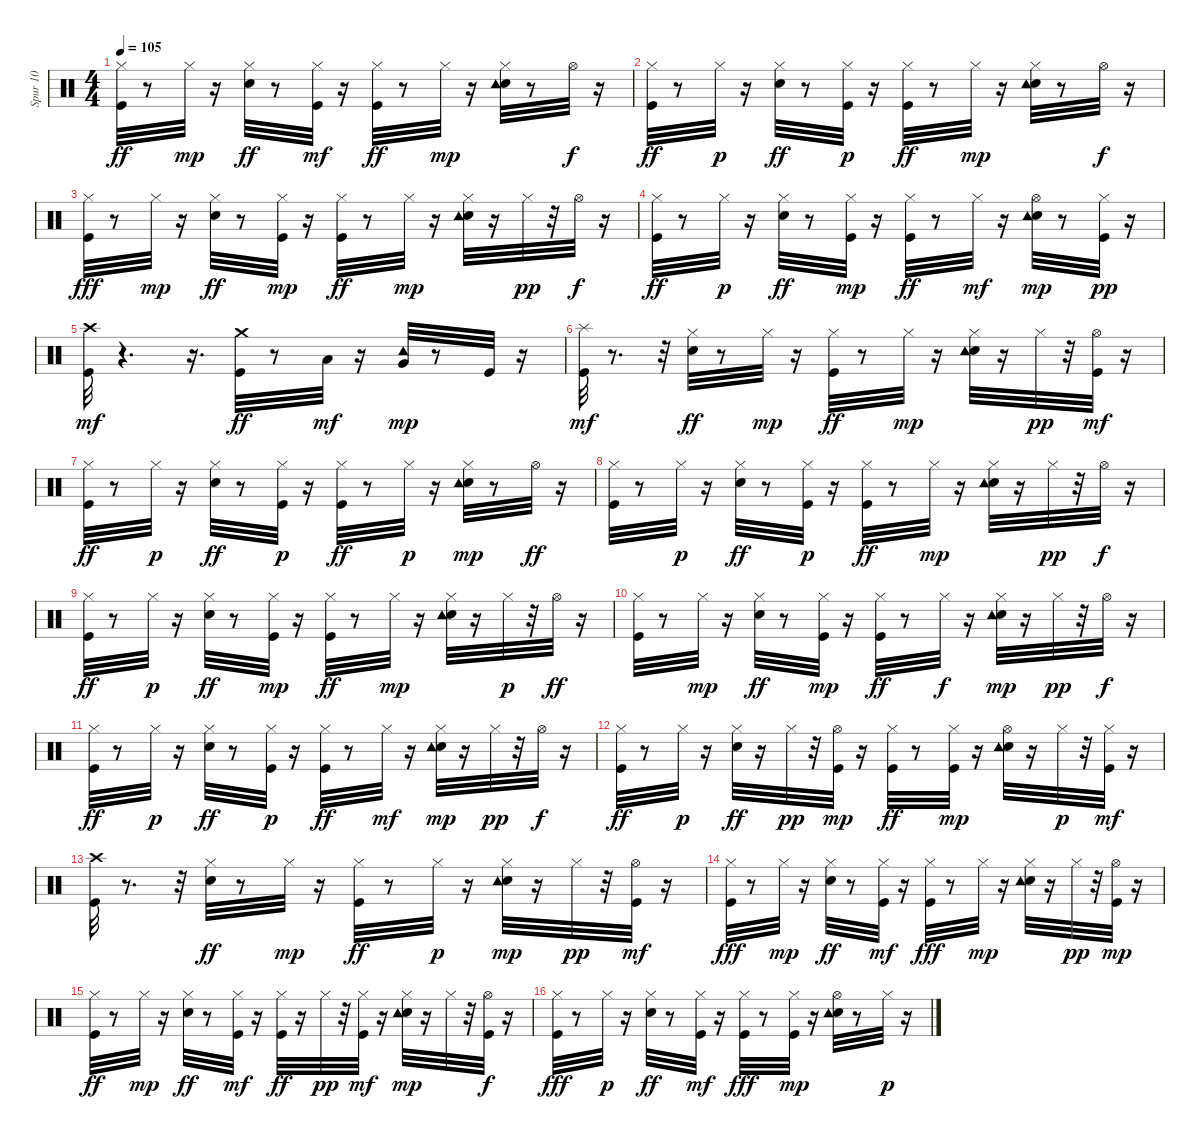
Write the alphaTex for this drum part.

\track ("Spur 10" "Spur 10") {instrument percussion}
\staff {score}
\articulation defaults
\ts (4 4)
\tempo 105
\clef neutral
\ks c
("Kick (hit)" "Hi-Hat (closed)").32{dy ff} r.8 "Hi-Hat (closed)".32{dy mp} r.16 ("Snare (hit) 2" "Hi-Hat (closed)").32{dy ff} r.8 ("Kick (hit)" "Hi-Hat (closed)").32{dy mf} r.16 ("Kick (hit)" "Hi-Hat (closed)").32{dy ff} r.8 "Hi-Hat (closed)".32{dy mp} r.16 ("Snare (hit) 2" "Hi-Hat (closed)" "Tambourine (hit)").32 r.8 "Hi-Hat (open)".32{dy f} r.16 |
("Kick (hit)" "Hi-Hat (closed)").32{dy ff} r.8 "Hi-Hat (closed)".32{dy p} r.16 ("Snare (hit) 2" "Hi-Hat (closed)").32{dy ff} r.8 ("Kick (hit)" "Hi-Hat (closed)").32{dy p} r.16 ("Kick (hit)" "Hi-Hat (closed)").32{dy ff} r.8 "Hi-Hat (closed)".32{dy mp} r.16 ("Snare (hit) 2" "Hi-Hat (closed)" "Tambourine (hit)").32 r.8 "Hi-Hat (open)".32{dy f} r.16 |
("Kick (hit)" "Hi-Hat (closed)").32{dy fff} r.8 "Hi-Hat (closed)".32{dy mp} r.16 ("Snare (hit) 2" "Hi-Hat (closed)").32{dy ff} r.8 ("Kick (hit)" "Hi-Hat (closed)").32{dy mp} r.16 ("Kick (hit)" "Hi-Hat (closed)").32{dy ff} r.8 "Hi-Hat (closed)".32{dy mp} r.16 ("Snare (hit) 2" "Hi-Hat (closed)" "Tambourine (hit)").32 r.16 "Hi-Hat (closed)".32{dy pp} r.32 "Hi-Hat (open)".32{dy f} r.16 |
("Kick (hit)" "Hi-Hat (closed)").32{dy ff} r.8 "Hi-Hat (closed)".32{dy p} r.16 ("Snare (hit) 2" "Hi-Hat (closed)").32{dy ff} r.8 ("Kick (hit)" "Hi-Hat (closed)").32{dy mp} r.16 ("Kick (hit)" "Hi-Hat (closed)").32{dy ff} r.8 "Hi-Hat (closed)".32{dy mf} r.16 ("Snare (hit) 2" "Hi-Hat (open)" "Tambourine (hit)").32{dy mp} r.8 ("Kick (hit)" "Hi-Hat (closed)").32{dy pp} r.16 |
("Kick (hit)" "Crash high (hit)").32{dy mf} r.4{d} r.16{d} ("Kick (hit)" "Crash medium (hit)").32{dy ff} r.8 "Low Tom (hit)".32{dy mf} r.16 ("Very Low Tom (hit)" "Tambourine (hit)").32{dy mp} r.8 "Kick (hit)".32 r.16 |
("Kick (hit)" "Splash (hit)").32{dy mf} r.8{d} r.32 ("Snare (hit) 2" "Hi-Hat (closed)").32{dy ff} r.8 "Hi-Hat (closed)".32{dy mp} r.16 ("Kick (hit)" "Hi-Hat (closed)").32{dy ff} r.8 "Hi-Hat (closed)".32{dy mp} r.16 ("Snare (hit) 2" "Hi-Hat (closed)" "Tambourine (hit)").32 r.16 "Hi-Hat (closed)".32{dy pp} r.32 ("Kick (hit)" "Hi-Hat (open)").32{dy mf} r.16 |
("Kick (hit)" "Hi-Hat (closed)").32{dy ff} r.8 "Hi-Hat (closed)".32{dy p} r.16 ("Snare (hit) 2" "Hi-Hat (closed)").32{dy ff} r.8 ("Kick (hit)" "Hi-Hat (closed)").32{dy p} r.16 ("Kick (hit)" "Hi-Hat (closed)").32{dy ff} r.8 "Hi-Hat (closed)".32{dy p} r.16 ("Snare (hit) 2" "Hi-Hat (closed)" "Tambourine (hit)").32{dy mp} r.8 "Hi-Hat (open)".32{dy ff} r.16 |
("Kick (hit)" "Hi-Hat (closed)").32 r.8 "Hi-Hat (closed)".32{dy p} r.16 ("Snare (hit) 2" "Hi-Hat (closed)").32{dy ff} r.8 ("Kick (hit)" "Hi-Hat (closed)").32{dy p} r.16 ("Kick (hit)" "Hi-Hat (closed)").32{dy ff} r.8 "Hi-Hat (closed)".32{dy mp} r.16 ("Snare (hit) 2" "Hi-Hat (closed)" "Tambourine (hit)").32 r.16 "Hi-Hat (closed)".32{dy pp} r.32 "Hi-Hat (open)".32{dy f} r.16 |
("Kick (hit)" "Hi-Hat (closed)").32{dy ff} r.8 "Hi-Hat (closed)".32{dy p} r.16 ("Snare (hit) 2" "Hi-Hat (closed)").32{dy ff} r.8 ("Kick (hit)" "Hi-Hat (closed)").32{dy mp} r.16 ("Kick (hit)" "Hi-Hat (closed)").32{dy ff} r.8 "Hi-Hat (closed)".32{dy mp} r.16 ("Snare (hit) 2" "Hi-Hat (closed)" "Tambourine (hit)").32 r.16 "Hi-Hat (closed)".32{dy p} r.32 "Hi-Hat (open)".32{dy ff} r.16 |
("Kick (hit)" "Hi-Hat (closed)").32 r.8 "Hi-Hat (closed)".32{dy mp} r.16 ("Snare (hit) 2" "Hi-Hat (closed)").32{dy ff} r.8 ("Kick (hit)" "Hi-Hat (closed)").32{dy mp} r.16 ("Kick (hit)" "Hi-Hat (closed)").32{dy ff} r.8 "Hi-Hat (closed)".32{dy f} r.16 ("Snare (hit) 2" "Hi-Hat (closed)" "Tambourine (hit)").32{dy mp} r.16 "Hi-Hat (closed)".32{dy pp} r.32 "Hi-Hat (open)".32{dy f} r.16 |
("Kick (hit)" "Hi-Hat (closed)").32{dy ff} r.8 "Hi-Hat (closed)".32{dy p} r.16 ("Snare (hit) 2" "Hi-Hat (closed)").32{dy ff} r.8 ("Kick (hit)" "Hi-Hat (closed)").32{dy p} r.16 ("Kick (hit)" "Hi-Hat (closed)").32{dy ff} r.8 "Hi-Hat (closed)".32{dy mf} r.16 ("Snare (hit) 2" "Hi-Hat (closed)" "Tambourine (hit)").32{dy mp} r.16 "Hi-Hat (closed)".32{dy pp} r.32 "Hi-Hat (open)".32{dy f} r.16 |
("Kick (hit)" "Hi-Hat (closed)").32{dy ff} r.8 "Hi-Hat (closed)".32{dy p} r.16 ("Snare (hit) 2" "Hi-Hat (closed)").32{dy ff} r.16 "Hi-Hat (closed)".32{dy pp} r.32 ("Kick (hit)" "Hi-Hat (open)").32{dy mp} r.16 ("Kick (hit)" "Hi-Hat (closed)").32{dy ff} r.8 ("Kick (hit)" "Hi-Hat (closed)").32{dy mp} r.16 ("Snare (hit) 2" "Hi-Hat (open)" "Tambourine (hit)").32 r.16 "Hi-Hat (closed)".32{dy p} r.32 ("Kick (hit)" "Hi-Hat (closed)").32{dy mf} r.16 |
("Kick (hit)" "Crash high (hit)").32 r.8{d} r.32 ("Snare (hit) 2" "Hi-Hat (closed)").32{dy ff} r.8 "Hi-Hat (closed)".32{dy mp} r.16 ("Kick (hit)" "Hi-Hat (closed)").32{dy ff} r.8 "Hi-Hat (closed)".32{dy p} r.16 ("Snare (hit) 2" "Hi-Hat (closed)" "Tambourine (hit)").32{dy mp} r.16 "Hi-Hat (closed)".32{dy pp} r.32 ("Kick (hit)" "Hi-Hat (open)").32{dy mf} r.16 |
("Kick (hit)" "Hi-Hat (closed)").32{dy fff} r.8 "Hi-Hat (closed)".32{dy mp} r.16 ("Snare (hit) 2" "Hi-Hat (closed)").32{dy ff} r.8 ("Kick (hit)" "Hi-Hat (closed)").32{dy mf} r.16 ("Kick (hit)" "Hi-Hat (closed)").32{dy fff} r.8 "Hi-Hat (closed)".32{dy mp} r.16 ("Snare (hit) 2" "Hi-Hat (closed)" "Tambourine (hit)").32 r.16 "Hi-Hat (closed)".32{dy pp} r.32 ("Kick (hit)" "Hi-Hat (open)").32{dy mp} r.16 |
("Kick (hit)" "Hi-Hat (closed)").32{dy ff} r.8 "Hi-Hat (closed)".32{dy mp} r.16 ("Snare (hit) 2" "Hi-Hat (closed)").32{dy ff} r.8 ("Kick (hit)" "Hi-Hat (closed)").32{dy mf} r.16 ("Kick (hit)" "Hi-Hat (closed)").32{dy ff} r.16 "Hi-Hat (closed)".32{dy pp} r.32 ("Kick (hit)" "Hi-Hat (closed)").32{dy mf} r.16 ("Snare (hit) 2" "Hi-Hat (closed)" "Tambourine (hit)").32{dy mp} r.16 "Hi-Hat (closed)".32 r.32 ("Kick (hit)" "Hi-Hat (open)").32{dy f} r.16 |
("Kick (hit)" "Hi-Hat (closed)").32{dy fff} r.8 "Hi-Hat (closed)".32{dy p} r.16 ("Snare (hit) 2" "Hi-Hat (closed)").32{dy ff} r.8 ("Kick (hit)" "Hi-Hat (closed)").32{dy mf} r.16 ("Kick (hit)" "Hi-Hat (closed)").32{dy fff} r.8 ("Kick (hit)" "Hi-Hat (closed)").32{dy mp} r.16 ("Snare (hit) 2" "Hi-Hat (open)" "Tambourine (hit)").32 r.8 "Hi-Hat (closed)".32{dy p} r.16
